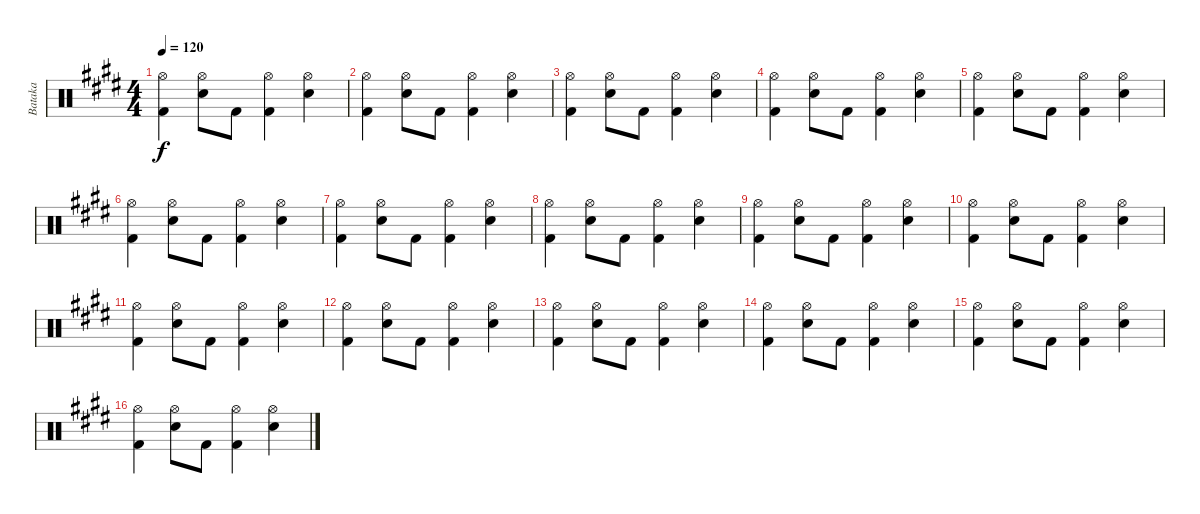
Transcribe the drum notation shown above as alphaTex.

\track ("Bataka" "Bataka") {instrument percussion}
\staff {score}
\articulation defaults
\ts (4 4)
\tempo 120
\clef neutral
\ks e
("Hi-Hat (open)" "Kick (hit) 2").4{dy f} ("Hi-Hat (open)" "Electric Snare (hit)").8 "Kick (hit) 2".8 ("Hi-Hat (open)" "Kick (hit) 2").4 ("Hi-Hat (open)" "Electric Snare (hit)").4 |
("Hi-Hat (open)" "Kick (hit) 2").4 ("Hi-Hat (open)" "Electric Snare (hit)").8 "Kick (hit) 2".8 ("Hi-Hat (open)" "Kick (hit) 2").4 ("Hi-Hat (open)" "Electric Snare (hit)").4 |
("Hi-Hat (open)" "Kick (hit) 2").4 ("Hi-Hat (open)" "Electric Snare (hit)").8 "Kick (hit) 2".8 ("Hi-Hat (open)" "Kick (hit) 2").4 ("Hi-Hat (open)" "Electric Snare (hit)").4 |
("Hi-Hat (open)" "Kick (hit) 2").4 ("Hi-Hat (open)" "Electric Snare (hit)").8 "Kick (hit) 2".8 ("Hi-Hat (open)" "Kick (hit) 2").4 ("Hi-Hat (open)" "Electric Snare (hit)").4 |
("Hi-Hat (open)" "Kick (hit) 2").4 ("Hi-Hat (open)" "Electric Snare (hit)").8 "Kick (hit) 2".8 ("Hi-Hat (open)" "Kick (hit) 2").4 ("Hi-Hat (open)" "Electric Snare (hit)").4 |
("Hi-Hat (open)" "Kick (hit) 2").4 ("Hi-Hat (open)" "Electric Snare (hit)").8 "Kick (hit) 2".8 ("Hi-Hat (open)" "Kick (hit) 2").4 ("Hi-Hat (open)" "Electric Snare (hit)").4 |
("Hi-Hat (open)" "Kick (hit) 2").4{volume 9} ("Hi-Hat (open)" "Electric Snare (hit)").8 "Kick (hit) 2".8 ("Hi-Hat (open)" "Kick (hit) 2").4 ("Hi-Hat (open)" "Electric Snare (hit)").4 |
("Hi-Hat (open)" "Kick (hit) 2").4 ("Hi-Hat (open)" "Electric Snare (hit)").8 "Kick (hit) 2".8 ("Hi-Hat (open)" "Kick (hit) 2").4 ("Hi-Hat (open)" "Electric Snare (hit)").4 |
("Hi-Hat (open)" "Kick (hit) 2").4 ("Hi-Hat (open)" "Electric Snare (hit)").8 "Kick (hit) 2".8 ("Hi-Hat (open)" "Kick (hit) 2").4 ("Hi-Hat (open)" "Electric Snare (hit)").4 |
("Hi-Hat (open)" "Kick (hit) 2").4 ("Hi-Hat (open)" "Electric Snare (hit)").8 "Kick (hit) 2".8 ("Hi-Hat (open)" "Kick (hit) 2").4 ("Hi-Hat (open)" "Electric Snare (hit)").4 |
("Hi-Hat (open)" "Kick (hit) 2").4{volume 5} ("Hi-Hat (open)" "Electric Snare (hit)").8 "Kick (hit) 2".8 ("Hi-Hat (open)" "Kick (hit) 2").4 ("Hi-Hat (open)" "Electric Snare (hit)").4 |
("Hi-Hat (open)" "Kick (hit) 2").4 ("Hi-Hat (open)" "Electric Snare (hit)").8 "Kick (hit) 2".8 ("Hi-Hat (open)" "Kick (hit) 2").4 ("Hi-Hat (open)" "Electric Snare (hit)").4 |
("Hi-Hat (open)" "Kick (hit) 2").4 ("Hi-Hat (open)" "Electric Snare (hit)").8 "Kick (hit) 2".8 ("Hi-Hat (open)" "Kick (hit) 2").4 ("Hi-Hat (open)" "Electric Snare (hit)").4 |
("Hi-Hat (open)" "Kick (hit) 2").4 ("Hi-Hat (open)" "Electric Snare (hit)").8 "Kick (hit) 2".8 ("Hi-Hat (open)" "Kick (hit) 2").4 ("Hi-Hat (open)" "Electric Snare (hit)").4 |
("Hi-Hat (open)" "Kick (hit) 2").4{volume 0} ("Hi-Hat (open)" "Electric Snare (hit)").8 "Kick (hit) 2".8 ("Hi-Hat (open)" "Kick (hit) 2").4 ("Hi-Hat (open)" "Electric Snare (hit)").4 |
("Hi-Hat (open)" "Kick (hit) 2").4 ("Hi-Hat (open)" "Electric Snare (hit)").8 "Kick (hit) 2".8 ("Hi-Hat (open)" "Kick (hit) 2").4 ("Hi-Hat (open)" "Electric Snare (hit)").4
